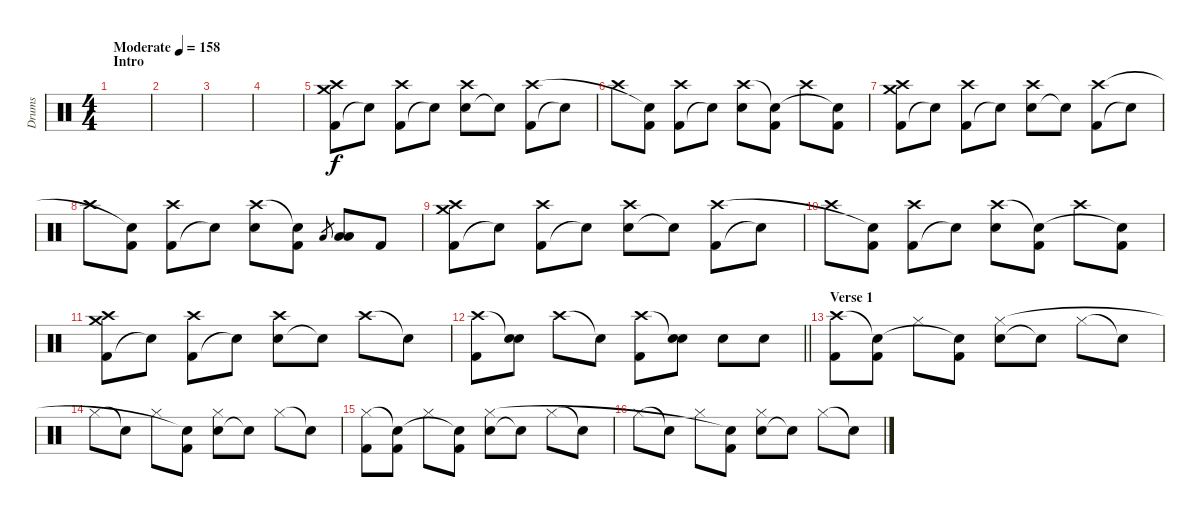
\track ("Drums" "Drums") {instrument percussion}
\staff {score}
\articulation defaults
\ts (4 4)
\section ("" "Intro")
\tempo (158 "Moderate")
\clef neutral
\ks c
|
|
|
|
("Kick (hit) 2" "Crash medium (hit)" "Crash high (hit)").8 "Snare (hit)"{t}.8 ("Kick (hit) 2" "Crash high (hit)").8 "Snare (hit)"{t}.8 ("Electric Snare (hit)" "Crash high (hit)").8 "Snare (hit)"{t}.8 ("Kick (hit) 2" "Crash high (hit)").8 "Snare (hit)"{t}.8 |
"Crash high (hit)".8 ("Kick (hit) 2" "Snare (hit)"{t}).8 ("Kick (hit) 2" "Crash high (hit)").8 "Snare (hit)"{t}.8 ("Electric Snare (hit)" "Crash high (hit)").8 ("Kick (hit) 2" "Snare (hit)"{t}).8 "Crash high (hit)".8 ("Kick (hit) 2" "Snare (hit)"{t}).8 |
("Kick (hit) 2" "Crash medium (hit)" "Crash high (hit)").8 "Snare (hit)"{t}.8 ("Kick (hit) 2" "Crash high (hit)").8 "Snare (hit)"{t}.8 ("Electric Snare (hit)" "Crash high (hit)").8 "Snare (hit)"{t}.8 ("Kick (hit) 2" "Crash high (hit)").8 "Snare (hit)"{t}.8 |
"Crash high (hit)".8 ("Kick (hit) 2" "Snare (hit)"{t}).8 ("Kick (hit) 2" "Crash high (hit)").8 "Snare (hit)"{t}.8 ("Electric Snare (hit)" "Crash high (hit)").8 ("Kick (hit) 2" "Snare (hit)"{t}).8 "Low Tom (hit)".8{gr} ("Low Tom (hit)" "Low Floor Tom (hit)").8 "Kick (hit) 2".8 |
("Kick (hit) 2" "Crash medium (hit)" "Crash high (hit)").8 "Snare (hit)"{t}.8 ("Kick (hit) 2" "Crash high (hit)").8 "Snare (hit)"{t}.8 ("Electric Snare (hit)" "Crash high (hit)").8 "Snare (hit)"{t}.8 ("Kick (hit) 2" "Crash high (hit)").8 "Snare (hit)"{t}.8 |
"Crash high (hit)".8 ("Kick (hit) 2" "Snare (hit)"{t}).8 ("Kick (hit) 2" "Crash high (hit)").8 "Snare (hit)"{t}.8 ("Electric Snare (hit)" "Crash high (hit)").8 ("Kick (hit) 2" "Snare (hit)"{t}).8 "Crash high (hit)".8 ("Kick (hit) 2" "Snare (hit)"{t}).8 |
("Kick (hit) 2" "Crash medium (hit)" "Crash high (hit)").8 "Snare (hit)"{t}.8 ("Kick (hit) 2" "Crash high (hit)").8 "Snare (hit)"{t}.8 ("Electric Snare (hit)" "Crash high (hit)").8 "Snare (hit)"{t}.8 "Crash high (hit)".8 "Snare (hit)"{t}.8 |
\barLineRight lightlight
("Kick (hit) 2" "Crash high (hit)").8 ("Electric Snare (hit)" "Snare (hit)"{t}).8 "Crash high (hit)".8 "Snare (hit)"{t}.8 ("Kick (hit) 2" "Crash high (hit)").8 ("Electric Snare (hit)" "Snare (hit)"{t}).8 "Electric Snare (hit)".8 "Electric Snare (hit)".8 |
\section ("" "Verse 1")
("Kick (hit) 2" "Crash high (hit)").8 ("Kick (hit) 2" "Snare (hit)"{t}).8 "Hi-Hat (closed)".8 ("Kick (hit) 2" "Snare (hit)"{t}).8 ("Electric Snare (hit)" "Hi-Hat (closed)").8 "Snare (hit)"{t}.8 "Hi-Hat (closed)".8 "Snare (hit)"{t}.8 |
"Hi-Hat (closed)".8 "Snare (hit)"{t}.8 "Hi-Hat (closed)".8 ("Kick (hit) 2" "Snare (hit)"{t}).8 ("Electric Snare (hit)" "Hi-Hat (closed)").8 "Snare (hit)"{t}.8 "Hi-Hat (closed)".8 "Snare (hit)"{t}.8 |
("Kick (hit) 2" "Hi-Hat (closed)").8 ("Kick (hit) 2" "Snare (hit)"{t}).8 "Hi-Hat (closed)".8 ("Kick (hit) 2" "Snare (hit)"{t}).8 ("Electric Snare (hit)" "Hi-Hat (closed)").8 "Snare (hit)"{t}.8 "Hi-Hat (closed)".8 "Snare (hit)"{t}.8 |
"Hi-Hat (closed)".8 "Snare (hit)"{t}.8 "Hi-Hat (closed)".8 ("Kick (hit) 2" "Snare (hit)"{t}).8 ("Electric Snare (hit)" "Hi-Hat (closed)").8 "Snare (hit)"{t}.8 "Hi-Hat (closed)".8 "Snare (hit)"{t}.8
